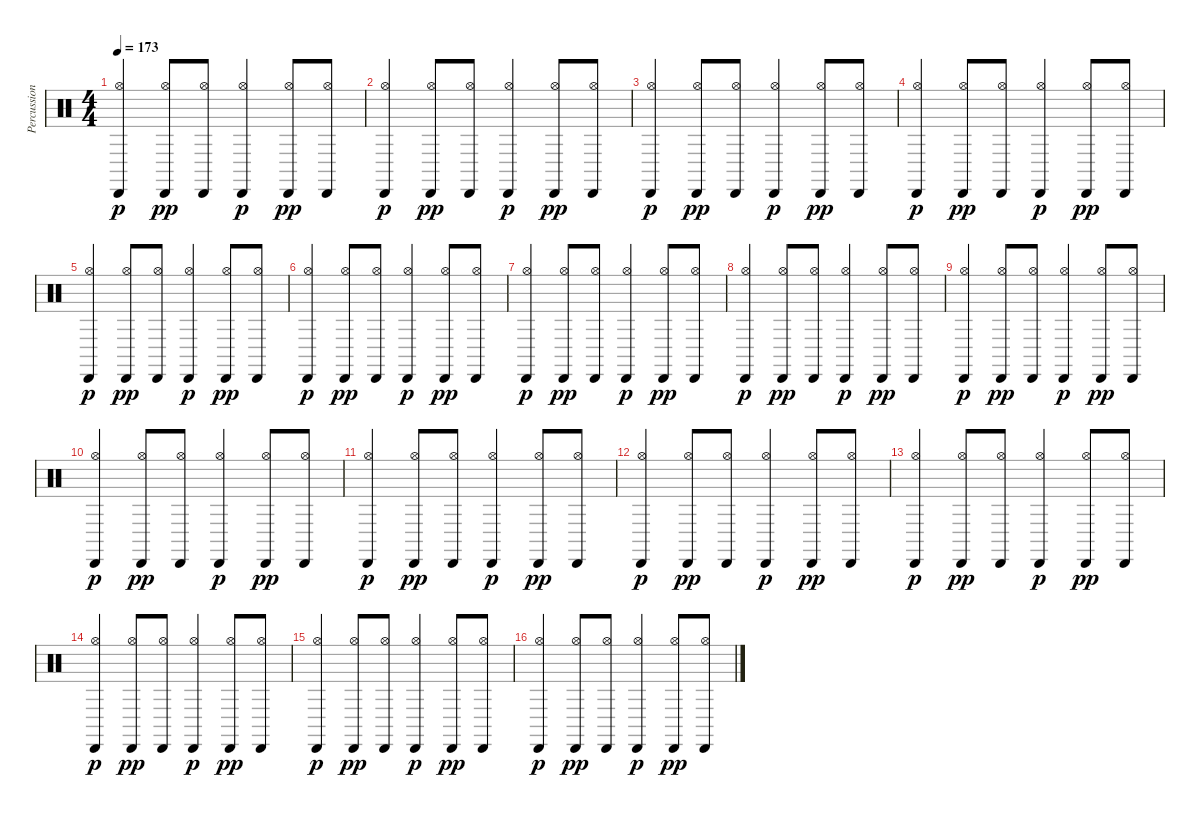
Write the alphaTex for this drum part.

\track ("Percussion" "Percussion") {instrument percussion}
\staff {score}
\articulation defaults
\ts (4 4)
\tempo 173
\clef neutral
\ks c
("Cabasa (hit)" "Hi-Hat (open)").4{dy p} ("Cabasa (hit)" "Hi-Hat (open)").8{dy pp} ("Cabasa (hit)" "Hi-Hat (open)").8 ("Cabasa (hit)" "Hi-Hat (open)").4{dy p} ("Cabasa (hit)" "Hi-Hat (open)").8{dy pp} ("Cabasa (hit)" "Hi-Hat (open)").8 |
("Cabasa (hit)" "Hi-Hat (open)").4{dy p} ("Cabasa (hit)" "Hi-Hat (open)").8{dy pp} ("Cabasa (hit)" "Hi-Hat (open)").8 ("Cabasa (hit)" "Hi-Hat (open)").4{dy p} ("Cabasa (hit)" "Hi-Hat (open)").8{dy pp} ("Cabasa (hit)" "Hi-Hat (open)").8 |
("Cabasa (hit)" "Hi-Hat (open)").4{dy p} ("Cabasa (hit)" "Hi-Hat (open)").8{dy pp} ("Cabasa (hit)" "Hi-Hat (open)").8 ("Cabasa (hit)" "Hi-Hat (open)").4{dy p} ("Cabasa (hit)" "Hi-Hat (open)").8{dy pp} ("Cabasa (hit)" "Hi-Hat (open)").8 |
("Cabasa (hit)" "Hi-Hat (open)").4{dy p} ("Cabasa (hit)" "Hi-Hat (open)").8{dy pp} ("Cabasa (hit)" "Hi-Hat (open)").8 ("Cabasa (hit)" "Hi-Hat (open)").4{dy p} ("Cabasa (hit)" "Hi-Hat (open)").8{dy pp} ("Cabasa (hit)" "Hi-Hat (open)").8 |
("Cabasa (hit)" "Hi-Hat (open)").4{dy p} ("Cabasa (hit)" "Hi-Hat (open)").8{dy pp} ("Cabasa (hit)" "Hi-Hat (open)").8 ("Cabasa (hit)" "Hi-Hat (open)").4{dy p} ("Cabasa (hit)" "Hi-Hat (open)").8{dy pp} ("Cabasa (hit)" "Hi-Hat (open)").8 |
("Cabasa (hit)" "Hi-Hat (open)").4{dy p} ("Cabasa (hit)" "Hi-Hat (open)").8{dy pp} ("Cabasa (hit)" "Hi-Hat (open)").8 ("Cabasa (hit)" "Hi-Hat (open)").4{dy p} ("Cabasa (hit)" "Hi-Hat (open)").8{dy pp} ("Cabasa (hit)" "Hi-Hat (open)").8 |
("Cabasa (hit)" "Hi-Hat (open)").4{dy p} ("Cabasa (hit)" "Hi-Hat (open)").8{dy pp} ("Cabasa (hit)" "Hi-Hat (open)").8 ("Cabasa (hit)" "Hi-Hat (open)").4{dy p} ("Cabasa (hit)" "Hi-Hat (open)").8{dy pp} ("Cabasa (hit)" "Hi-Hat (open)").8 |
("Cabasa (hit)" "Hi-Hat (open)").4{dy p} ("Cabasa (hit)" "Hi-Hat (open)").8{dy pp} ("Cabasa (hit)" "Hi-Hat (open)").8 ("Cabasa (hit)" "Hi-Hat (open)").4{dy p} ("Cabasa (hit)" "Hi-Hat (open)").8{dy pp} ("Cabasa (hit)" "Hi-Hat (open)").8 |
("Cabasa (hit)" "Hi-Hat (open)").4{dy p} ("Cabasa (hit)" "Hi-Hat (open)").8{dy pp} ("Cabasa (hit)" "Hi-Hat (open)").8 ("Cabasa (hit)" "Hi-Hat (open)").4{dy p} ("Cabasa (hit)" "Hi-Hat (open)").8{dy pp} ("Cabasa (hit)" "Hi-Hat (open)").8 |
("Cabasa (hit)" "Hi-Hat (open)").4{dy p} ("Cabasa (hit)" "Hi-Hat (open)").8{dy pp} ("Cabasa (hit)" "Hi-Hat (open)").8 ("Cabasa (hit)" "Hi-Hat (open)").4{dy p} ("Cabasa (hit)" "Hi-Hat (open)").8{dy pp} ("Cabasa (hit)" "Hi-Hat (open)").8 |
("Cabasa (hit)" "Hi-Hat (open)").4{dy p} ("Cabasa (hit)" "Hi-Hat (open)").8{dy pp} ("Cabasa (hit)" "Hi-Hat (open)").8 ("Cabasa (hit)" "Hi-Hat (open)").4{dy p} ("Cabasa (hit)" "Hi-Hat (open)").8{dy pp} ("Cabasa (hit)" "Hi-Hat (open)").8 |
("Cabasa (hit)" "Hi-Hat (open)").4{dy p} ("Cabasa (hit)" "Hi-Hat (open)").8{dy pp} ("Cabasa (hit)" "Hi-Hat (open)").8 ("Cabasa (hit)" "Hi-Hat (open)").4{dy p} ("Cabasa (hit)" "Hi-Hat (open)").8{dy pp} ("Cabasa (hit)" "Hi-Hat (open)").8 |
("Cabasa (hit)" "Hi-Hat (open)").4{dy p} ("Cabasa (hit)" "Hi-Hat (open)").8{dy pp} ("Cabasa (hit)" "Hi-Hat (open)").8 ("Cabasa (hit)" "Hi-Hat (open)").4{dy p} ("Cabasa (hit)" "Hi-Hat (open)").8{dy pp} ("Cabasa (hit)" "Hi-Hat (open)").8 |
("Cabasa (hit)" "Hi-Hat (open)").4{dy p} ("Cabasa (hit)" "Hi-Hat (open)").8{dy pp} ("Cabasa (hit)" "Hi-Hat (open)").8 ("Cabasa (hit)" "Hi-Hat (open)").4{dy p} ("Cabasa (hit)" "Hi-Hat (open)").8{dy pp} ("Cabasa (hit)" "Hi-Hat (open)").8 |
("Cabasa (hit)" "Hi-Hat (open)").4{dy p} ("Cabasa (hit)" "Hi-Hat (open)").8{dy pp} ("Cabasa (hit)" "Hi-Hat (open)").8 ("Cabasa (hit)" "Hi-Hat (open)").4{dy p} ("Cabasa (hit)" "Hi-Hat (open)").8{dy pp} ("Cabasa (hit)" "Hi-Hat (open)").8 |
("Cabasa (hit)" "Hi-Hat (open)").4{dy p} ("Cabasa (hit)" "Hi-Hat (open)").8{dy pp} ("Cabasa (hit)" "Hi-Hat (open)").8 ("Cabasa (hit)" "Hi-Hat (open)").4{dy p} ("Cabasa (hit)" "Hi-Hat (open)").8{dy pp} ("Cabasa (hit)" "Hi-Hat (open)").8
